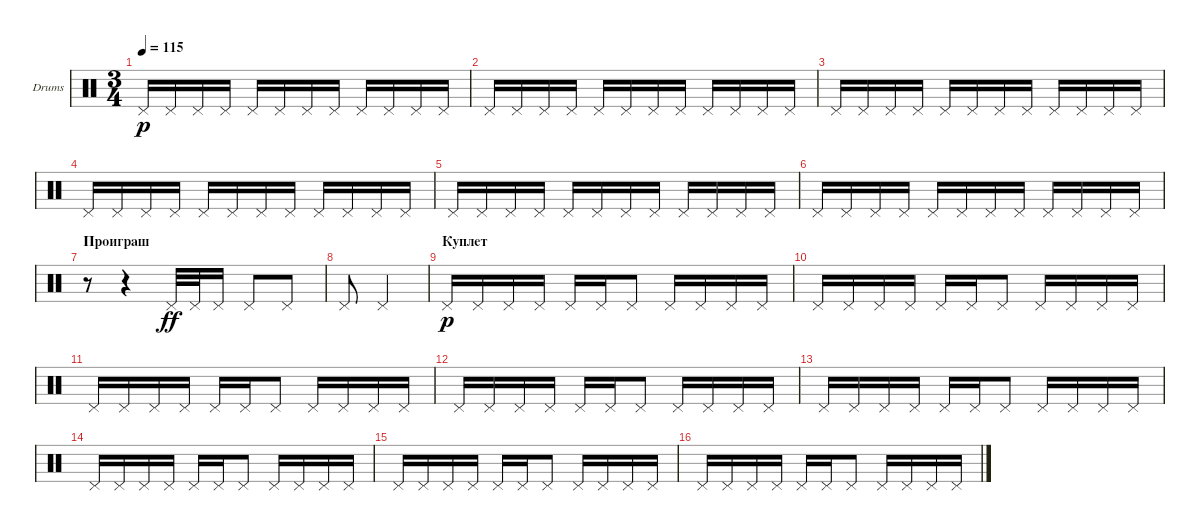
\defaultSystemsLayout 4
\bracketExtendMode groupsimilarinstruments
\firstSystemTrackNameOrientation horizontal
\otherSystemsTrackNameOrientation horizontal
\track ("Е. Кулаков" "Drums") {instrument percussion}
\staff {score}
\articulation defaults
\ts (3 4)
\tempo 115
\clef neutral
\ks c "Pedal Hi-Hat (hit)".16{dy p} "Pedal Hi-Hat (hit)".16 "Pedal Hi-Hat (hit)".16 "Pedal Hi-Hat (hit)".16 "Pedal Hi-Hat (hit)".16 "Pedal Hi-Hat (hit)".16 "Pedal Hi-Hat (hit)".16 "Pedal Hi-Hat (hit)".16 "Pedal Hi-Hat (hit)".16 "Pedal Hi-Hat (hit)".16 "Pedal Hi-Hat (hit)".16 "Pedal Hi-Hat (hit)".16
|
"Pedal Hi-Hat (hit)".16 "Pedal Hi-Hat (hit)".16 "Pedal Hi-Hat (hit)".16 "Pedal Hi-Hat (hit)".16 "Pedal Hi-Hat (hit)".16 "Pedal Hi-Hat (hit)".16 "Pedal Hi-Hat (hit)".16 "Pedal Hi-Hat (hit)".16 "Pedal Hi-Hat (hit)".16 "Pedal Hi-Hat (hit)".16 "Pedal Hi-Hat (hit)".16 "Pedal Hi-Hat (hit)".16 |
"Pedal Hi-Hat (hit)".16 "Pedal Hi-Hat (hit)".16 "Pedal Hi-Hat (hit)".16 "Pedal Hi-Hat (hit)".16 "Pedal Hi-Hat (hit)".16 "Pedal Hi-Hat (hit)".16 "Pedal Hi-Hat (hit)".16 "Pedal Hi-Hat (hit)".16 "Pedal Hi-Hat (hit)".16 "Pedal Hi-Hat (hit)".16 "Pedal Hi-Hat (hit)".16 "Pedal Hi-Hat (hit)".16 |
"Pedal Hi-Hat (hit)".16 "Pedal Hi-Hat (hit)".16 "Pedal Hi-Hat (hit)".16 "Pedal Hi-Hat (hit)".16 "Pedal Hi-Hat (hit)".16 "Pedal Hi-Hat (hit)".16 "Pedal Hi-Hat (hit)".16 "Pedal Hi-Hat (hit)".16 "Pedal Hi-Hat (hit)".16 "Pedal Hi-Hat (hit)".16 "Pedal Hi-Hat (hit)".16 "Pedal Hi-Hat (hit)".16 |
"Pedal Hi-Hat (hit)".16 "Pedal Hi-Hat (hit)".16 "Pedal Hi-Hat (hit)".16 "Pedal Hi-Hat (hit)".16 "Pedal Hi-Hat (hit)".16 "Pedal Hi-Hat (hit)".16 "Pedal Hi-Hat (hit)".16 "Pedal Hi-Hat (hit)".16 "Pedal Hi-Hat (hit)".16 "Pedal Hi-Hat (hit)".16 "Pedal Hi-Hat (hit)".16 "Pedal Hi-Hat (hit)".16 |
"Pedal Hi-Hat (hit)".16 "Pedal Hi-Hat (hit)".16 "Pedal Hi-Hat (hit)".16 "Pedal Hi-Hat (hit)".16 "Pedal Hi-Hat (hit)".16 "Pedal Hi-Hat (hit)".16 "Pedal Hi-Hat (hit)".16 "Pedal Hi-Hat (hit)".16 "Pedal Hi-Hat (hit)".16 "Pedal Hi-Hat (hit)".16 "Pedal Hi-Hat (hit)".16 "Pedal Hi-Hat (hit)".16 |
\section ("" "Проиграш")
r.8 r.4 "Pedal Hi-Hat (hit)".32{dy ff} "Pedal Hi-Hat (hit)".32 "Pedal Hi-Hat (hit)".16 "Pedal Hi-Hat (hit)".8 "Pedal Hi-Hat (hit)".8 |
"Pedal Hi-Hat (hit)".8 "Pedal Hi-Hat (hit)".4 |
\section ("" "Куплет")
"Pedal Hi-Hat (hit)".16{dy p} "Pedal Hi-Hat (hit)".16 "Pedal Hi-Hat (hit)".16 "Pedal Hi-Hat (hit)".16 "Pedal Hi-Hat (hit)".16 "Pedal Hi-Hat (hit)".16 "Pedal Hi-Hat (hit)".8 "Pedal Hi-Hat (hit)".16 "Pedal Hi-Hat (hit)".16 "Pedal Hi-Hat (hit)".16 "Pedal Hi-Hat (hit)".16 |
"Pedal Hi-Hat (hit)".16 "Pedal Hi-Hat (hit)".16 "Pedal Hi-Hat (hit)".16 "Pedal Hi-Hat (hit)".16 "Pedal Hi-Hat (hit)".16 "Pedal Hi-Hat (hit)".16 "Pedal Hi-Hat (hit)".8 "Pedal Hi-Hat (hit)".16 "Pedal Hi-Hat (hit)".16 "Pedal Hi-Hat (hit)".16 "Pedal Hi-Hat (hit)".16 |
"Pedal Hi-Hat (hit)".16 "Pedal Hi-Hat (hit)".16 "Pedal Hi-Hat (hit)".16 "Pedal Hi-Hat (hit)".16 "Pedal Hi-Hat (hit)".16 "Pedal Hi-Hat (hit)".16 "Pedal Hi-Hat (hit)".8 "Pedal Hi-Hat (hit)".16 "Pedal Hi-Hat (hit)".16 "Pedal Hi-Hat (hit)".16 "Pedal Hi-Hat (hit)".16 |
"Pedal Hi-Hat (hit)".16 "Pedal Hi-Hat (hit)".16 "Pedal Hi-Hat (hit)".16 "Pedal Hi-Hat (hit)".16 "Pedal Hi-Hat (hit)".16 "Pedal Hi-Hat (hit)".16 "Pedal Hi-Hat (hit)".8 "Pedal Hi-Hat (hit)".16 "Pedal Hi-Hat (hit)".16 "Pedal Hi-Hat (hit)".16 "Pedal Hi-Hat (hit)".16 |
"Pedal Hi-Hat (hit)".16 "Pedal Hi-Hat (hit)".16 "Pedal Hi-Hat (hit)".16 "Pedal Hi-Hat (hit)".16 "Pedal Hi-Hat (hit)".16 "Pedal Hi-Hat (hit)".16 "Pedal Hi-Hat (hit)".8 "Pedal Hi-Hat (hit)".16 "Pedal Hi-Hat (hit)".16 "Pedal Hi-Hat (hit)".16 "Pedal Hi-Hat (hit)".16 |
"Pedal Hi-Hat (hit)".16 "Pedal Hi-Hat (hit)".16 "Pedal Hi-Hat (hit)".16 "Pedal Hi-Hat (hit)".16 "Pedal Hi-Hat (hit)".16 "Pedal Hi-Hat (hit)".16 "Pedal Hi-Hat (hit)".8 "Pedal Hi-Hat (hit)".16 "Pedal Hi-Hat (hit)".16 "Pedal Hi-Hat (hit)".16 "Pedal Hi-Hat (hit)".16 |
"Pedal Hi-Hat (hit)".16 "Pedal Hi-Hat (hit)".16 "Pedal Hi-Hat (hit)".16 "Pedal Hi-Hat (hit)".16 "Pedal Hi-Hat (hit)".16 "Pedal Hi-Hat (hit)".16 "Pedal Hi-Hat (hit)".8 "Pedal Hi-Hat (hit)".16 "Pedal Hi-Hat (hit)".16 "Pedal Hi-Hat (hit)".16 "Pedal Hi-Hat (hit)".16 |
"Pedal Hi-Hat (hit)".16 "Pedal Hi-Hat (hit)".16 "Pedal Hi-Hat (hit)".16 "Pedal Hi-Hat (hit)".16 "Pedal Hi-Hat (hit)".16 "Pedal Hi-Hat (hit)".16 "Pedal Hi-Hat (hit)".8 "Pedal Hi-Hat (hit)".16 "Pedal Hi-Hat (hit)".16 "Pedal Hi-Hat (hit)".16 "Pedal Hi-Hat (hit)".16
